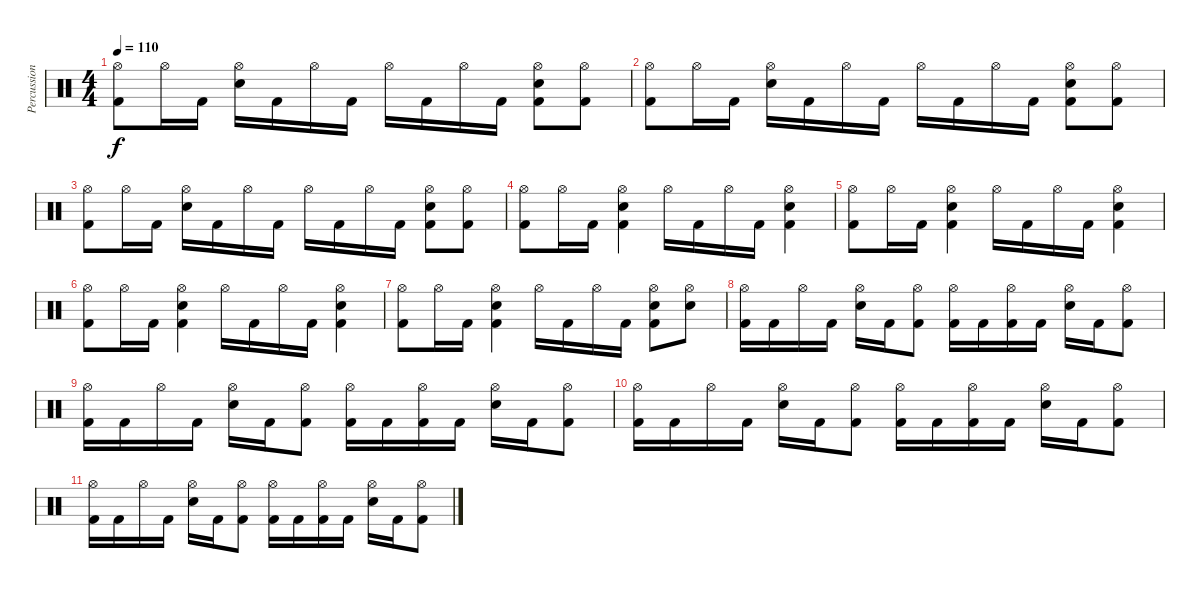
\track ("Percussions" "Percussion") {instrument percussion}
\staff {score}
\articulation defaults
\ts (4 4)
\tempo 110
\clef neutral
\ks c
("Hi-Hat (open)" "Kick (hit) 2").8{dy f} "Hi-Hat (open)".16 "Kick (hit) 2".16 ("Electric Snare (hit)" "Hi-Hat (open)").16 "Kick (hit) 2".16 "Hi-Hat (open)".16 "Kick (hit) 2".16 "Hi-Hat (open)".16 "Kick (hit) 2".16 "Hi-Hat (open)".16 "Kick (hit) 2".16 ("Electric Snare (hit)" "Hi-Hat (open)" "Kick (hit) 2").8 ("Hi-Hat (open)" "Kick (hit) 2").8 |
("Hi-Hat (open)" "Kick (hit) 2").8 "Hi-Hat (open)".16 "Kick (hit) 2".16 ("Electric Snare (hit)" "Hi-Hat (open)").16 "Kick (hit) 2".16 "Hi-Hat (open)".16 "Kick (hit) 2".16 "Hi-Hat (open)".16 "Kick (hit) 2".16 "Hi-Hat (open)".16 "Kick (hit) 2".16 ("Electric Snare (hit)" "Hi-Hat (open)" "Kick (hit) 2").8 ("Hi-Hat (open)" "Kick (hit) 2").8 |
("Hi-Hat (open)" "Kick (hit) 2").8 "Hi-Hat (open)".16 "Kick (hit) 2".16 ("Electric Snare (hit)" "Hi-Hat (open)").16 "Kick (hit) 2".16 "Hi-Hat (open)".16 "Kick (hit) 2".16 "Hi-Hat (open)".16 "Kick (hit) 2".16 "Hi-Hat (open)".16 "Kick (hit) 2".16 ("Electric Snare (hit)" "Hi-Hat (open)" "Kick (hit) 2").8 ("Hi-Hat (open)" "Kick (hit) 2").8 |
("Hi-Hat (open)" "Kick (hit) 2").8 "Hi-Hat (open)".16 "Kick (hit) 2".16 ("Electric Snare (hit)" "Hi-Hat (open)" "Kick (hit) 2").4 "Hi-Hat (open)".16 "Kick (hit) 2".16 "Hi-Hat (open)".16 "Kick (hit) 2".16 ("Electric Snare (hit)" "Hi-Hat (open)" "Kick (hit) 2").4 |
("Hi-Hat (open)" "Kick (hit) 2").8 "Hi-Hat (open)".16 "Kick (hit) 2".16 ("Electric Snare (hit)" "Hi-Hat (open)" "Kick (hit) 2").4 "Hi-Hat (open)".16 "Kick (hit) 2".16 "Hi-Hat (open)".16 "Kick (hit) 2".16 ("Electric Snare (hit)" "Hi-Hat (open)" "Kick (hit) 2").4 |
("Hi-Hat (open)" "Kick (hit) 2").8 "Hi-Hat (open)".16 "Kick (hit) 2".16 ("Electric Snare (hit)" "Hi-Hat (open)" "Kick (hit) 2").4 "Hi-Hat (open)".16 "Kick (hit) 2".16 "Hi-Hat (open)".16 "Kick (hit) 2".16 ("Electric Snare (hit)" "Hi-Hat (open)" "Kick (hit) 2").4 |
("Hi-Hat (open)" "Kick (hit) 2").8 "Hi-Hat (open)".16 "Kick (hit) 2".16 ("Electric Snare (hit)" "Hi-Hat (open)" "Kick (hit) 2").4 "Hi-Hat (open)".16 "Kick (hit) 2".16 "Hi-Hat (open)".16 "Kick (hit) 2".16 ("Electric Snare (hit)" "Hi-Hat (open)" "Kick (hit) 2").8 ("Electric Snare (hit)" "Hi-Hat (open)").8 |
("Hi-Hat (open)" "Kick (hit) 2").16 "Kick (hit) 2".16 "Hi-Hat (open)".16 "Kick (hit) 2".16 ("Electric Snare (hit)" "Hi-Hat (open)").16 "Kick (hit) 2".16 ("Hi-Hat (open)" "Kick (hit) 2").8 ("Hi-Hat (open)" "Kick (hit) 2").16 "Kick (hit) 2".16 ("Hi-Hat (open)" "Kick (hit) 2").16 "Kick (hit) 2".16 ("Electric Snare (hit)" "Hi-Hat (open)").16 "Kick (hit) 2".16 ("Hi-Hat (open)" "Kick (hit) 2").8 |
("Hi-Hat (open)" "Kick (hit) 2").16 "Kick (hit) 2".16 "Hi-Hat (open)".16 "Kick (hit) 2".16 ("Electric Snare (hit)" "Hi-Hat (open)").16 "Kick (hit) 2".16 ("Hi-Hat (open)" "Kick (hit) 2").8 ("Hi-Hat (open)" "Kick (hit) 2").16 "Kick (hit) 2".16 ("Hi-Hat (open)" "Kick (hit) 2").16 "Kick (hit) 2".16 ("Electric Snare (hit)" "Hi-Hat (open)").16 "Kick (hit) 2".16 ("Hi-Hat (open)" "Kick (hit) 2").8 |
("Hi-Hat (open)" "Kick (hit) 2").16 "Kick (hit) 2".16 "Hi-Hat (open)".16 "Kick (hit) 2".16 ("Electric Snare (hit)" "Hi-Hat (open)").16 "Kick (hit) 2".16 ("Hi-Hat (open)" "Kick (hit) 2").8 ("Hi-Hat (open)" "Kick (hit) 2").16 "Kick (hit) 2".16 ("Hi-Hat (open)" "Kick (hit) 2").16 "Kick (hit) 2".16 ("Electric Snare (hit)" "Hi-Hat (open)").16 "Kick (hit) 2".16 ("Hi-Hat (open)" "Kick (hit) 2").8 |
("Hi-Hat (open)" "Kick (hit) 2").16 "Kick (hit) 2".16 "Hi-Hat (open)".16 "Kick (hit) 2".16 ("Electric Snare (hit)" "Hi-Hat (open)").16 "Kick (hit) 2".16 ("Hi-Hat (open)" "Kick (hit) 2").8 ("Hi-Hat (open)" "Kick (hit) 2").16 "Kick (hit) 2".16 ("Hi-Hat (open)" "Kick (hit) 2").16 "Kick (hit) 2".16 ("Electric Snare (hit)" "Hi-Hat (open)").16 "Kick (hit) 2".16 ("Hi-Hat (open)" "Kick (hit) 2").8
